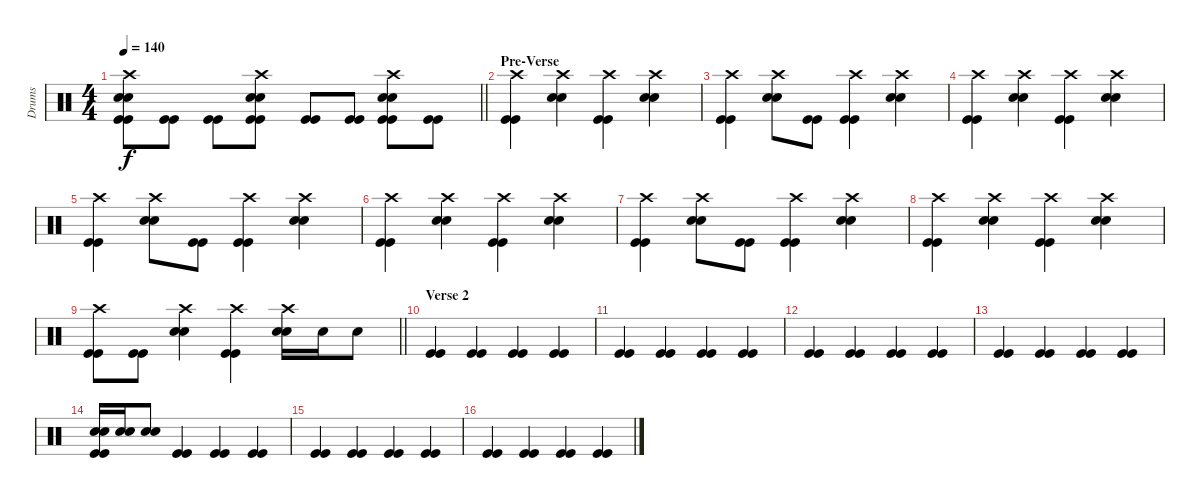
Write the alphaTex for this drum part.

\track ("Drums" "Drums") {instrument percussion}
\staff {score}
\articulation defaults
\ts (4 4)
\tempo 140
\clef neutral
\barLineRight lightlight
\ks c
("Crash high (hit)" "Snare (hit) 2" "Snare (hit) 2" "Kick (hit)" "Kick (hit)").8{dy f} ("Kick (hit)" "Kick (hit)").8 ("Kick (hit)" "Kick (hit)").8 ("Crash high (hit)" "Snare (hit) 2" "Snare (hit) 2" "Kick (hit)" "Kick (hit)").8 ("Kick (hit)" "Kick (hit)").8 ("Kick (hit)" "Kick (hit)").8 ("Crash high (hit)" "Snare (hit) 2" "Snare (hit) 2" "Kick (hit)" "Kick (hit)").8 ("Kick (hit)" "Kick (hit)").8 |
\section ("" "Pre-Verse")
("Crash high (hit)" "Kick (hit)" "Kick (hit)").4 ("Crash high (hit)" "Snare (hit) 2" "Snare (hit) 2").4 ("Crash high (hit)" "Kick (hit)" "Kick (hit)").4 ("Crash high (hit)" "Snare (hit) 2" "Snare (hit) 2").4 |
("Crash high (hit)" "Kick (hit)" "Kick (hit)").4 ("Crash high (hit)" "Snare (hit) 2" "Snare (hit) 2").8 ("Kick (hit)" "Kick (hit)").8 ("Crash high (hit)" "Kick (hit)" "Kick (hit)").4 ("Crash high (hit)" "Snare (hit) 2" "Snare (hit) 2").4 |
("Crash high (hit)" "Kick (hit)" "Kick (hit)").4 ("Crash high (hit)" "Snare (hit) 2" "Snare (hit) 2").4 ("Crash high (hit)" "Kick (hit)" "Kick (hit)").4 ("Crash high (hit)" "Snare (hit) 2" "Snare (hit) 2").4 |
("Crash high (hit)" "Kick (hit)" "Kick (hit)").4 ("Crash high (hit)" "Snare (hit) 2" "Snare (hit) 2").8 ("Kick (hit)" "Kick (hit)").8 ("Crash high (hit)" "Kick (hit)" "Kick (hit)").4 ("Crash high (hit)" "Snare (hit) 2" "Snare (hit) 2").4 |
("Crash high (hit)" "Kick (hit)" "Kick (hit)").4 ("Crash high (hit)" "Snare (hit) 2" "Snare (hit) 2").4 ("Crash high (hit)" "Kick (hit)" "Kick (hit)").4 ("Crash high (hit)" "Snare (hit) 2" "Snare (hit) 2").4 |
("Crash high (hit)" "Kick (hit)" "Kick (hit)").4 ("Crash high (hit)" "Snare (hit) 2" "Snare (hit) 2").8 ("Kick (hit)" "Kick (hit)").8 ("Crash high (hit)" "Kick (hit)" "Kick (hit)").4 ("Crash high (hit)" "Snare (hit) 2" "Snare (hit) 2").4 |
("Crash high (hit)" "Kick (hit)" "Kick (hit)").4 ("Crash high (hit)" "Snare (hit) 2" "Snare (hit) 2").4 ("Crash high (hit)" "Kick (hit)" "Kick (hit)").4 ("Crash high (hit)" "Snare (hit) 2" "Snare (hit) 2").4 |
\barLineRight lightlight
("Crash high (hit)" "Kick (hit)" "Kick (hit)").8 ("Kick (hit)" "Kick (hit)").8 ("Crash high (hit)" "Snare (hit) 2" "Snare (hit) 2").4 ("Crash high (hit)" "Kick (hit)" "Kick (hit)").4 ("Crash high (hit)" "Snare (hit) 2" "Snare (hit) 2").16 "Snare (hit) 2".16 "Snare (hit) 2".8 |
\section ("" "Verse 2")
("Kick (hit)" "Kick (hit)").4 ("Kick (hit)" "Kick (hit)").4 ("Kick (hit)" "Kick (hit)").4 ("Kick (hit)" "Kick (hit)").4 |
("Kick (hit)" "Kick (hit)").4 ("Kick (hit)" "Kick (hit)").4 ("Kick (hit)" "Kick (hit)").4 ("Kick (hit)" "Kick (hit)").4 |
("Kick (hit)" "Kick (hit)").4 ("Kick (hit)" "Kick (hit)").4 ("Kick (hit)" "Kick (hit)").4 ("Kick (hit)" "Kick (hit)").4 |
("Kick (hit)" "Kick (hit)").4 ("Kick (hit)" "Kick (hit)").4 ("Kick (hit)" "Kick (hit)").4 ("Kick (hit)" "Kick (hit)").4 |
("Snare (hit) 2" "Snare (hit) 2" "Kick (hit)" "Kick (hit)").16 ("Snare (hit) 2" "Snare (hit) 2").16 ("Snare (hit) 2" "Snare (hit) 2").8 ("Kick (hit)" "Kick (hit)").4 ("Kick (hit)" "Kick (hit)").4 ("Kick (hit)" "Kick (hit)").4 |
("Kick (hit)" "Kick (hit)").4 ("Kick (hit)" "Kick (hit)").4 ("Kick (hit)" "Kick (hit)").4 ("Kick (hit)" "Kick (hit)").4 |
("Kick (hit)" "Kick (hit)").4 ("Kick (hit)" "Kick (hit)").4 ("Kick (hit)" "Kick (hit)").4 ("Kick (hit)" "Kick (hit)").4
